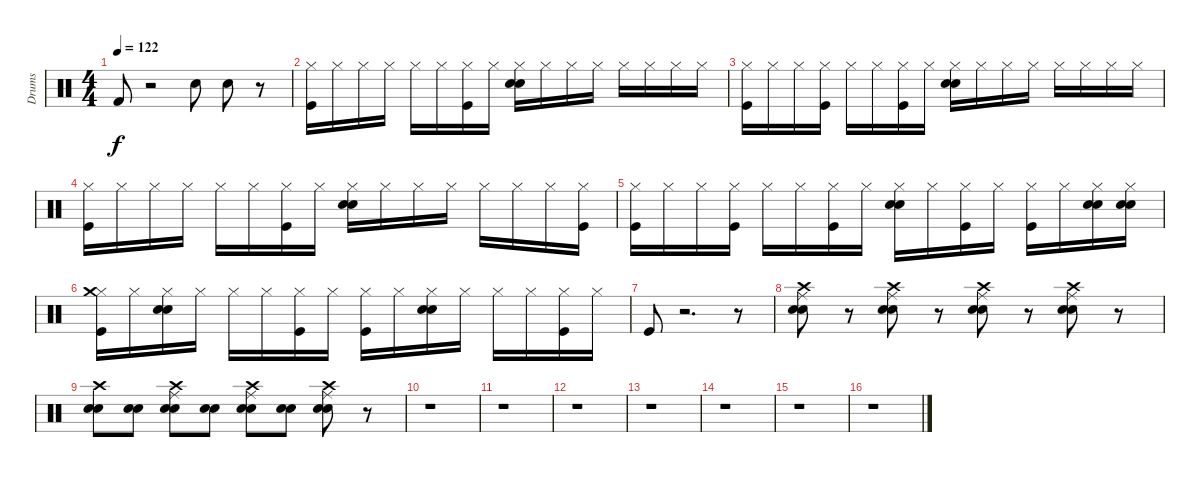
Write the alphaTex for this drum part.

\track ("Drums" "Drums") {instrument percussion}
\staff {score}
\articulation defaults
\ts (4 4)
\tempo 122
\clef neutral
\ks c "Kick (hit) 2".8{dy f}
r.2 "Hand Clap (hit)".8 "Hand Clap (hit)".8 r.8 |
("Kick (hit)" "Hi-Hat (closed)").16 "Hi-Hat (closed)".16 "Hi-Hat (closed)".16 "Hi-Hat (closed)".16 "Hi-Hat (closed)".16 "Hi-Hat (closed)".16 ("Kick (hit)" "Hi-Hat (closed)").16 "Hi-Hat (closed)".16 ("Snare (hit) 2" "Hi-Hat (closed)" "Electric Snare (hit)").16 "Hi-Hat (closed)".16 "Hi-Hat (closed)".16 "Hi-Hat (closed)".16 "Hi-Hat (closed)".16 "Hi-Hat (closed)".16 "Hi-Hat (closed)".16 "Hi-Hat (closed)".16 |
("Kick (hit)" "Hi-Hat (closed)").16 "Hi-Hat (closed)".16 "Hi-Hat (closed)".16 ("Kick (hit)" "Hi-Hat (closed)").16 "Hi-Hat (closed)".16 "Hi-Hat (closed)".16 ("Kick (hit)" "Hi-Hat (closed)").16 "Hi-Hat (closed)".16 ("Snare (hit) 2" "Hi-Hat (closed)" "Electric Snare (hit)").16 "Hi-Hat (closed)".16 "Hi-Hat (closed)".16 "Hi-Hat (closed)".16 "Hi-Hat (closed)".16 "Hi-Hat (closed)".16 "Hi-Hat (closed)".16 "Hi-Hat (closed)".16 |
("Kick (hit)" "Hi-Hat (closed)").16 "Hi-Hat (closed)".16 "Hi-Hat (closed)".16 "Hi-Hat (closed)".16 "Hi-Hat (closed)".16 "Hi-Hat (closed)".16 ("Kick (hit)" "Hi-Hat (closed)").16 "Hi-Hat (closed)".16 ("Snare (hit) 2" "Hi-Hat (closed)" "Electric Snare (hit)").16 "Hi-Hat (closed)".16 "Hi-Hat (closed)".16 "Hi-Hat (closed)".16 "Hi-Hat (closed)".16 "Hi-Hat (closed)".16 "Hi-Hat (closed)".16 ("Kick (hit)" "Hi-Hat (closed)").16 |
("Kick (hit)" "Hi-Hat (closed)").16 "Hi-Hat (closed)".16 "Hi-Hat (closed)".16 ("Kick (hit)" "Hi-Hat (closed)").16 "Hi-Hat (closed)".16 "Hi-Hat (closed)".16 ("Kick (hit)" "Hi-Hat (closed)").16 "Hi-Hat (closed)".16 ("Snare (hit) 2" "Hi-Hat (closed)" "Electric Snare (hit)").16 "Hi-Hat (closed)".16 ("Kick (hit)" "Hi-Hat (closed)").16 "Hi-Hat (closed)".16 ("Kick (hit)" "Hi-Hat (closed)").16 "Hi-Hat (closed)".16 ("Snare (hit) 2" "Hi-Hat (closed)" "Electric Snare (hit)").16 ("Snare (hit) 2" "Hi-Hat (closed)" "Electric Snare (hit)").16 |
("Hi-Hat (closed)" "Crash medium (hit)" "Kick (hit)").16 "Hi-Hat (closed)".16 ("Hi-Hat (closed)" "Snare (hit) 2" "Electric Snare (hit)").16 "Hi-Hat (closed)".16 "Hi-Hat (closed)".16 "Hi-Hat (closed)".16 ("Hi-Hat (closed)" "Kick (hit)").16 "Hi-Hat (closed)".16 ("Hi-Hat (closed)" "Kick (hit)").16 "Hi-Hat (closed)".16 ("Hi-Hat (closed)" "Snare (hit) 2" "Electric Snare (hit)").16 "Hi-Hat (closed)".16 "Hi-Hat (closed)".16 "Hi-Hat (closed)".16 ("Hi-Hat (closed)" "Kick (hit)").16 "Hi-Hat (closed)".16 |
"Kick (hit)".8 r.2{d} r.8 |
("Ride (middle)" "Crash high (hit)" "Snare (hit) 2" "Electric Snare (hit)").8 r.8 ("Ride (middle)" "Crash high (hit)" "Snare (hit) 2" "Electric Snare (hit)").8 r.8 ("Ride (middle)" "Crash high (hit)" "Snare (hit) 2" "Electric Snare (hit)").8 r.8 ("Ride (middle)" "Crash high (hit)" "Snare (hit) 2" "Electric Snare (hit)").8 r.8 |
("Crash high (hit)" "Snare (hit) 2" "Electric Snare (hit)").8 ("Snare (hit) 2" "Electric Snare (hit)").8 ("Snare (hit) 2" "Ride (middle)" "Crash high (hit)" "Electric Snare (hit)").8 ("Snare (hit) 2" "Electric Snare (hit)").8 ("Snare (hit) 2" "Ride (middle)" "Crash high (hit)" "Electric Snare (hit)").8 ("Snare (hit) 2" "Electric Snare (hit)").8 ("Snare (hit) 2" "Ride (middle)" "Crash high (hit)" "Electric Snare (hit)").8 r.8 |
r.1 |
r.1 |
r.1 |
r.1 |
r.1 |
r.1 |
r.1
